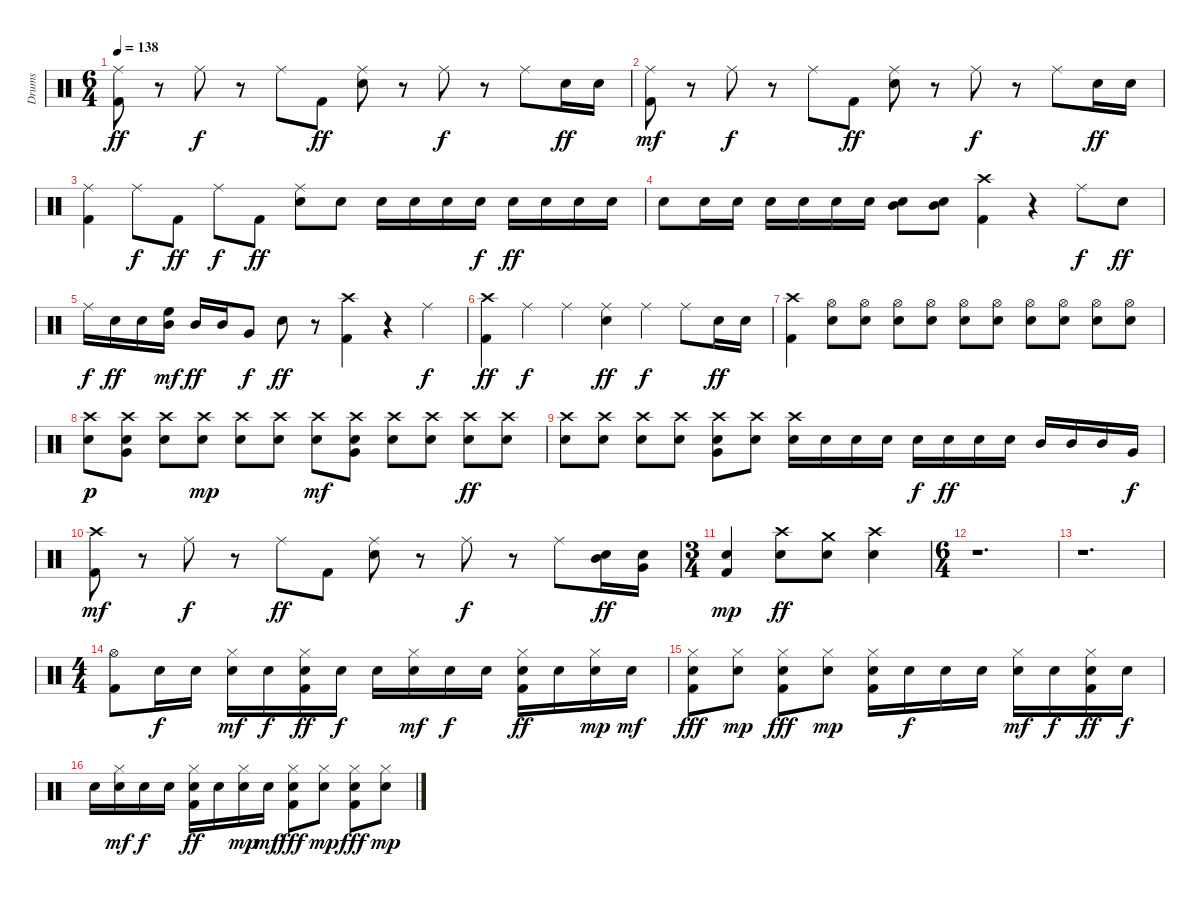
\track ("Drums" "Drums") {instrument percussion}
\staff {score}
\articulation defaults
\ts (6 4)
\tempo 138
\clef neutral
\ks c
("Kick (hit) 2" "Ride (middle)").8{dy ff} r.8 "Ride (middle)".8{dy f} r.8 "Ride (middle)".8 "Kick (hit) 2".8{dy ff} ("Snare (hit) 2" "Ride (middle)").8 r.8 "Ride (middle)".8{dy f} r.8 "Ride (middle)".8 "Snare (hit) 2".16{dy ff} "Snare (hit) 2".16 |
("Kick (hit) 2" "Ride (middle)").8{dy mf} r.8 "Ride (middle)".8{dy f} r.8 "Ride (middle)".8 "Kick (hit) 2".8{dy ff} ("Snare (hit) 2" "Ride (middle)").8 r.8 "Ride (middle)".8{dy f} r.8 "Ride (middle)".8 "Snare (hit) 2".16{dy ff} "Snare (hit) 2".16 |
("Kick (hit) 2" "Ride (middle)").4 "Ride (middle)".8{dy f} "Kick (hit) 2".8{dy ff} "Ride (middle)".8{dy f} "Kick (hit) 2".8{dy ff} ("Snare (hit) 2" "Ride (middle)").8 "Snare (hit) 2".8 "Snare (hit) 2".16 "Snare (hit) 2".16 "Snare (hit) 2".16 "Snare (hit) 2".16{dy f} "Snare (hit) 2".16{dy ff} "Snare (hit) 2".16 "Snare (hit) 2".16 "Snare (hit) 2".16 |
"Snare (hit) 2".8 "Snare (hit) 2".16 "Snare (hit) 2".16 "Snare (hit) 2".16 "Snare (hit) 2".16 "Snare (hit) 2".16 "Snare (hit) 2".16 ("Snare (hit) 2" "Mid Tom (hit)").8 ("Snare (hit) 2" "Mid Tom (hit)").8 ("Kick (hit) 2" "Crash high (hit)").4 r.4 "Ride (middle)".8{dy f} "Snare (hit) 2".8{dy ff} |
"Ride (middle)".16{dy f} "Snare (hit) 2".16{dy ff} "Snare (hit) 2".16 ("Mid Tom (hit)" "High Floor Tom (hit)").16{dy mf} "Mid Tom (hit)".16{dy ff} "Mid Tom (hit)".16 "Very Low Tom (hit)".8{dy f} "Snare (hit) 2".8{dy ff} r.8 ("Kick (hit) 2" "Crash high (hit)").4 r.4 "Ride (middle)".4{dy f} |
("Kick (hit) 2" "Crash high (hit)").4{dy ff} "Ride (middle)".4{dy f} "Ride (middle)".4 ("Snare (hit) 2" "Ride (middle)").4{dy ff} "Ride (middle)".4{dy f} "Ride (middle)".8 "Snare (hit) 2".16{dy ff} "Snare (hit) 2".16 |
("Kick (hit) 2" "Crash high (hit)").4 ("Snare (hit) 2" "Hi-Hat (open)").8 ("Snare (hit) 2" "Hi-Hat (open)").8 ("Snare (hit) 2" "Hi-Hat (open)").8 ("Snare (hit) 2" "Hi-Hat (open)").8 ("Snare (hit) 2" "Hi-Hat (open)").8 ("Snare (hit) 2" "Hi-Hat (open)").8 ("Snare (hit) 2" "Hi-Hat (open)").8 ("Snare (hit) 2" "Hi-Hat (open)").8 ("Snare (hit) 2" "Hi-Hat (open)").8 ("Snare (hit) 2" "Hi-Hat (open)").8 |
("Snare (hit) 2" "Crash high (hit)").8{dy p} ("Snare (hit) 2" "Very Low Tom (hit)" "Crash high (hit)").8 ("Snare (hit) 2" "Crash high (hit)").8 ("Snare (hit) 2" "Crash high (hit)").8{dy mp} ("Snare (hit) 2" "Crash high (hit)").8 ("Snare (hit) 2" "Crash high (hit)").8 ("Snare (hit) 2" "Crash high (hit)").8{dy mf} ("Snare (hit) 2" "Very Low Tom (hit)" "Crash high (hit)").8 ("Snare (hit) 2" "Crash high (hit)").8 ("Snare (hit) 2" "Crash high (hit)").8 ("Snare (hit) 2" "Crash high (hit)").8{dy ff} ("Snare (hit) 2" "Crash high (hit)").8 |
("Snare (hit) 2" "Crash high (hit)").8 ("Snare (hit) 2" "Crash high (hit)").8 ("Snare (hit) 2" "Crash high (hit)").8 ("Snare (hit) 2" "Crash high (hit)").8 ("Snare (hit) 2" "Very Low Tom (hit)" "Crash high (hit)").8 ("Snare (hit) 2" "Crash high (hit)").8 ("Snare (hit) 2" "Crash high (hit)").16 "Snare (hit) 2".16 "Snare (hit) 2".16 "Snare (hit) 2".16 "Snare (hit) 2".16{dy f} "Snare (hit) 2".16{dy ff} "Snare (hit) 2".16 "Snare (hit) 2".16 "Mid Tom (hit)".16 "Mid Tom (hit)".16 "Mid Tom (hit)".16 "Very Low Tom (hit)".16{dy f} |
("Kick (hit) 2" "Crash high (hit)").8{dy mf} r.8 "Ride (middle)".8{dy f} r.8 "Ride (middle)".8{dy ff} "Kick (hit) 2".8 ("Snare (hit) 2" "Ride (middle)").8 r.8 "Ride (middle)".8{dy f} r.8 "Ride (middle)".8 ("Snare (hit) 2" "Mid Tom (hit)").16{dy ff} ("Snare (hit) 2" "Very Low Tom (hit)").16 |
\ts (3 4)
("Kick (hit) 2" "Snare (hit) 2").4{dy mp} ("Snare (hit) 2" "Crash high (hit)").8{dy ff} ("Snare (hit) 2" "Crash medium (hit)").8 ("Snare (hit) 2" "Crash high (hit)").4 |
\ts (6 4)
r.1{d} |
r.1{d} |
\ts (4 4)
("Kick (hit) 2" "Hi-Hat (open)").8 "Electric Snare (hit)".16{dy f} "Electric Snare (hit)".16 ("Electric Snare (hit)" "Hi-Hat (closed)").16{dy mf} "Electric Snare (hit)".16{dy f} ("Kick (hit) 2" "Electric Snare (hit)" "Hi-Hat (closed)").16{dy ff} "Electric Snare (hit)".16{dy f} "Electric Snare (hit)".16 ("Electric Snare (hit)" "Hi-Hat (closed)").16{dy mf} "Electric Snare (hit)".16{dy f} "Electric Snare (hit)".16 ("Kick (hit) 2" "Electric Snare (hit)" "Hi-Hat (closed)").16{dy ff} "Electric Snare (hit)".16 ("Electric Snare (hit)" "Hi-Hat (closed)").16{dy mp} "Electric Snare (hit)".16{dy mf} |
("Kick (hit) 2" "Electric Snare (hit)" "Hi-Hat (closed)").8{dy fff} ("Electric Snare (hit)" "Hi-Hat (closed)").8{dy mp} ("Kick (hit) 2" "Electric Snare (hit)" "Hi-Hat (closed)").8{dy fff} ("Electric Snare (hit)" "Hi-Hat (closed)").8{dy mp} ("Kick (hit) 2" "Electric Snare (hit)" "Hi-Hat (closed)").16 "Electric Snare (hit)".16{dy f} "Electric Snare (hit)".16 "Electric Snare (hit)".16 ("Electric Snare (hit)" "Hi-Hat (closed)").16{dy mf} "Electric Snare (hit)".16{dy f} ("Kick (hit) 2" "Electric Snare (hit)" "Hi-Hat (closed)").16{dy ff} "Electric Snare (hit)".16{dy f} |
"Electric Snare (hit)".16 ("Electric Snare (hit)" "Hi-Hat (closed)").16{dy mf} "Electric Snare (hit)".16{dy f} "Electric Snare (hit)".16 ("Kick (hit) 2" "Electric Snare (hit)" "Hi-Hat (closed)").16{dy ff} "Electric Snare (hit)".16 ("Electric Snare (hit)" "Hi-Hat (closed)").16{dy mp} "Electric Snare (hit)".16{dy mf} ("Kick (hit) 2" "Electric Snare (hit)" "Hi-Hat (closed)").8{dy fff} ("Electric Snare (hit)" "Hi-Hat (closed)").8{dy mp} ("Kick (hit) 2" "Electric Snare (hit)" "Hi-Hat (closed)").8{dy fff} ("Electric Snare (hit)" "Hi-Hat (closed)").8{dy mp}
